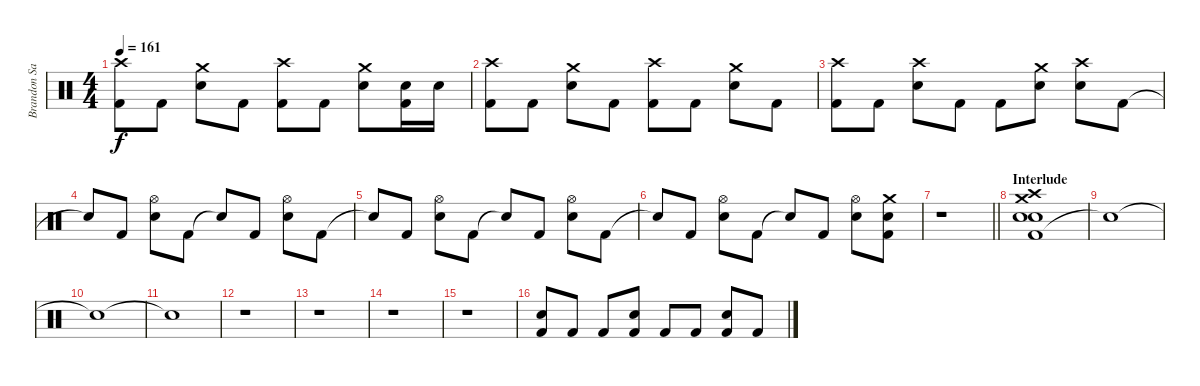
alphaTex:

\track ("Brandon Saller" "Brandon Sa") {instrument percussion}
\staff {score}
\articulation defaults
\ts (4 4)
\tempo 161
\clef neutral
\ks c
("Crash high (hit)" "Kick (hit) 2").8{dy f} "Kick (hit) 2".8 ("Crash medium (hit)" "Electric Snare (hit)").8 "Kick (hit) 2".8 ("Crash high (hit)" "Kick (hit) 2").8 "Kick (hit) 2".8 ("Crash medium (hit)" "Electric Snare (hit)").8 ("Electric Snare (hit)" "Kick (hit) 2").16 "Electric Snare (hit)".16 |
("Crash high (hit)" "Kick (hit) 2").8 "Kick (hit) 2".8 ("Crash medium (hit)" "Electric Snare (hit)").8 "Kick (hit) 2".8 ("Crash high (hit)" "Kick (hit) 2").8 "Kick (hit) 2".8 ("Crash medium (hit)" "Electric Snare (hit)").8 "Kick (hit) 2".8 |
("Crash high (hit)" "Kick (hit) 2").8 "Kick (hit) 2".8 ("Crash high (hit)" "Electric Snare (hit)").8 "Kick (hit) 2".8 "Kick (hit) 2".8 ("Crash medium (hit)" "Snare (hit) 2").8 ("Crash high (hit)" "Snare (hit) 2").8 "Kick (hit) 2".8 |
"Snare (hit)"{t}.8 "Kick (hit) 2".8 ("Hi-Hat (open)" "Electric Snare (hit)").8 "Kick (hit) 2".8 "Snare (hit)"{t}.8 "Kick (hit) 2".8 ("Hi-Hat (open)" "Electric Snare (hit)").8 "Kick (hit) 2".8 |
"Snare (hit)"{t}.8 "Kick (hit) 2".8 ("Hi-Hat (open)" "Electric Snare (hit)").8 "Kick (hit) 2".8 "Snare (hit)"{t}.8 "Kick (hit) 2".8 ("Hi-Hat (open)" "Electric Snare (hit)").8 "Kick (hit) 2".8 |
"Snare (hit)"{t}.8 "Kick (hit) 2".8 ("Hi-Hat (open)" "Electric Snare (hit)").8 "Kick (hit) 2".8 "Snare (hit)"{t}.8 "Kick (hit) 2".8 ("Hi-Hat (open)" "Electric Snare (hit)").8 ("Crash medium (hit)" "Snare (hit) 2" "Kick (hit) 2").8 |
\barLineRight lightlight
r.1 |
\section ("" "Interlude")
("Kick (hit) 2" "Snare (hit) 2" "Electric Snare (hit)" "Crash high (hit)" "Crash medium (hit)").1 |
"Snare (hit)"{t}.1 |
"Snare (hit)"{t}.1 |
"Snare (hit)"{t}.1 |
r.1 |
r.1 |
r.1 |
r.1 |
("Electric Snare (hit)" "Kick (hit) 2").8 "Kick (hit) 2".8 "Kick (hit) 2".8 ("Snare (hit) 2" "Kick (hit) 2").8 "Kick (hit) 2".8 "Kick (hit) 2".8 ("Electric Snare (hit)" "Kick (hit) 2").8 "Kick (hit) 2".8
